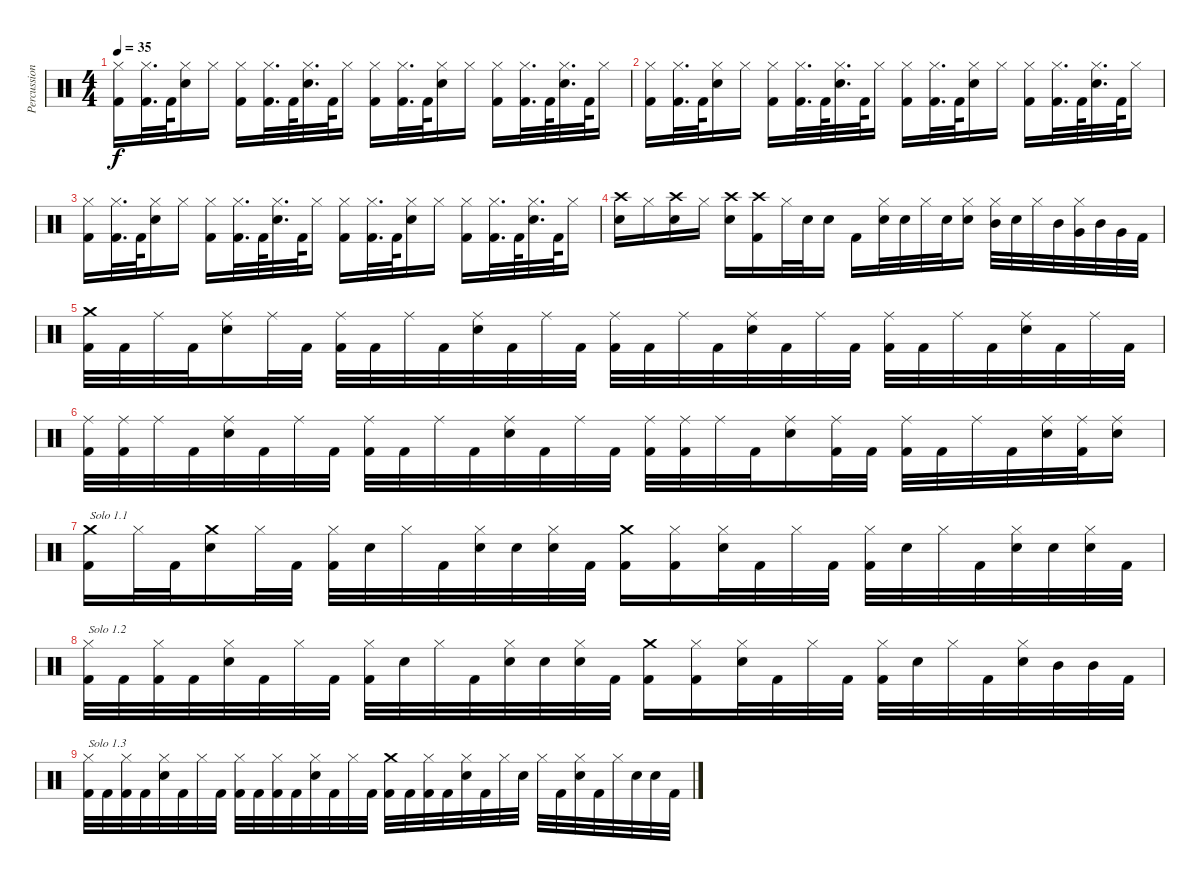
\track ("Percussion" "Percussion") {instrument percussion}
\staff {score}
\articulation defaults
\ts (4 4)
\tempo 35
\clef neutral
\ks c
("Hi-Hat (closed)" "Kick (hit) 2").16{dy f} ("Hi-Hat (closed)" "Kick (hit) 2").32{d} "Kick (hit) 2".64 ("Hi-Hat (closed)" "Snare (hit) 2").16 "Hi-Hat (closed)".16 ("Hi-Hat (closed)" "Kick (hit) 2").16 ("Hi-Hat (closed)" "Kick (hit) 2").32{d} "Kick (hit) 2".64 ("Hi-Hat (closed)" "Snare (hit) 2").32{d} "Kick (hit) 2".64 "Hi-Hat (closed)".16 ("Hi-Hat (closed)" "Kick (hit) 2").16 ("Hi-Hat (closed)" "Kick (hit) 2").32{d} "Kick (hit) 2".64 ("Hi-Hat (closed)" "Snare (hit) 2").16 "Hi-Hat (closed)".16 ("Hi-Hat (closed)" "Kick (hit) 2").16 ("Hi-Hat (closed)" "Kick (hit) 2").32{d} "Kick (hit) 2".64 ("Hi-Hat (closed)" "Snare (hit) 2").32{d} "Kick (hit) 2".64 "Hi-Hat (closed)".16 |
("Hi-Hat (closed)" "Kick (hit) 2").16 ("Hi-Hat (closed)" "Kick (hit) 2").32{d} "Kick (hit) 2".64 ("Hi-Hat (closed)" "Snare (hit) 2").16 "Hi-Hat (closed)".16 ("Hi-Hat (closed)" "Kick (hit) 2").16 ("Hi-Hat (closed)" "Kick (hit) 2").32{d} "Kick (hit) 2".64 ("Hi-Hat (closed)" "Snare (hit) 2").32{d} "Kick (hit) 2".64 "Hi-Hat (closed)".16 ("Hi-Hat (closed)" "Kick (hit) 2").16 ("Hi-Hat (closed)" "Kick (hit) 2").32{d} "Kick (hit) 2".64 ("Hi-Hat (closed)" "Snare (hit) 2").16 "Hi-Hat (closed)".16 ("Hi-Hat (closed)" "Kick (hit) 2").16 ("Hi-Hat (closed)" "Kick (hit) 2").32{d} "Kick (hit) 2".64 ("Hi-Hat (closed)" "Snare (hit) 2").32{d} "Kick (hit) 2".64 "Hi-Hat (closed)".16 |
("Hi-Hat (closed)" "Kick (hit) 2").16 ("Hi-Hat (closed)" "Kick (hit) 2").32{d} "Kick (hit) 2".64 ("Hi-Hat (closed)" "Snare (hit) 2").16 "Hi-Hat (closed)".16 ("Hi-Hat (closed)" "Kick (hit) 2").16 ("Hi-Hat (closed)" "Kick (hit) 2").32{d} "Kick (hit) 2".64 ("Hi-Hat (closed)" "Snare (hit) 2").32{d} "Kick (hit) 2".64 "Hi-Hat (closed)".16 ("Hi-Hat (closed)" "Kick (hit) 2").16 ("Hi-Hat (closed)" "Kick (hit) 2").32{d} "Kick (hit) 2".64 ("Hi-Hat (closed)" "Snare (hit) 2").16 "Hi-Hat (closed)".16 ("Hi-Hat (closed)" "Kick (hit) 2").16 ("Hi-Hat (closed)" "Kick (hit) 2").32{d} "Kick (hit) 2".64 ("Hi-Hat (closed)" "Snare (hit) 2").32{d} "Kick (hit) 2".64 "Hi-Hat (closed)".16 |
("Crash high (hit)" "Snare (hit) 2").16 "Hi-Hat (closed)".16 ("Crash high (hit)" "Snare (hit) 2").16 "Hi-Hat (closed)".16 ("Crash high (hit)" "Snare (hit) 2").16 ("Crash high (hit)" "Kick (hit) 2").16 "Hi-Hat (closed)".32 "Snare (hit) 2".32 "Snare (hit) 2".16 "Kick (hit) 2".16 ("Hi-Hat (closed)" "Snare (hit) 2").32 "Snare (hit) 2".32 "Hi-Hat (closed)".32 "Snare (hit) 2".32 ("Hi-Hat (closed)" "Snare (hit) 2").16 ("Hi-Hat (closed)" "Mid Tom (hit)").32 "Snare (hit) 2".32 "Hi-Hat (closed)".32 "Mid Tom (hit)".32 ("Hi-Hat (closed)" "Very Low Tom (hit)").32 "Mid Tom (hit)".32 "Very Low Tom (hit)".32 "Kick (hit) 2".32 |
("Crash medium (hit)" "Kick (hit) 2").32 "Kick (hit) 2".32 "Ride (middle)".32 "Kick (hit) 2".32 ("Ride (middle)" "Snare (hit) 2").16 "Ride (middle)".32 "Kick (hit) 2".32 ("Ride (middle)" "Kick (hit) 2").32 "Kick (hit) 2".32 "Ride (middle)".32 "Kick (hit) 2".32 ("Ride (middle)" "Snare (hit) 2").32 "Kick (hit) 2".32 "Ride (middle)".32 "Kick (hit) 2".32 ("Ride (middle)" "Kick (hit) 2").32 "Kick (hit) 2".32 "Ride (middle)".32 "Kick (hit) 2".32 ("Ride (middle)" "Snare (hit) 2").32 "Kick (hit) 2".32 "Ride (middle)".32 "Kick (hit) 2".32 ("Ride (middle)" "Kick (hit) 2").32 "Kick (hit) 2".32 "Ride (middle)".32 "Kick (hit) 2".32 ("Ride (middle)" "Snare (hit) 2").32 "Kick (hit) 2".32 "Ride (middle)".32 "Kick (hit) 2".32 |
("Ride (middle)" "Kick (hit) 2").32 ("Ride (middle)" "Kick (hit) 2").32 "Ride (middle)".32 "Kick (hit) 2".32 ("Ride (middle)" "Snare (hit) 2").32 "Kick (hit) 2".32 "Ride (middle)".32 "Kick (hit) 2".32 ("Ride (middle)" "Kick (hit) 2").32 "Kick (hit) 2".32 "Ride (middle)".32 "Kick (hit) 2".32 ("Ride (middle)" "Snare (hit) 2").32 "Kick (hit) 2".32 "Ride (middle)".32 "Kick (hit) 2".32 ("Ride (middle)" "Kick (hit) 2").32 ("Ride (middle)" "Kick (hit) 2").32 "Ride (middle)".32 "Kick (hit) 2".32 ("Ride (middle)" "Snare (hit) 2").16 ("Ride (middle)" "Kick (hit) 2").32 "Kick (hit) 2".32 ("Ride (middle)" "Kick (hit) 2").32 "Kick (hit) 2".32 "Ride (middle)".32 "Kick (hit) 2".32 ("Ride (middle)" "Snare (hit) 2").32 ("Ride (middle)" "Kick (hit) 2").32 ("Ride (middle)" "Snare (hit) 2").16 |
("Crash medium (hit)" "Kick (hit) 2").16{txt "Solo 1.1"} "Hi-Hat (closed)".32 "Kick (hit) 2".32 ("Crash medium (hit)" "Snare (hit) 2").16 "Hi-Hat (closed)".32 "Kick (hit) 2".32 ("Hi-Hat (closed)" "Kick (hit) 2").32 "Snare (hit) 2".32 "Hi-Hat (closed)".32 "Kick (hit) 2".32 ("Hi-Hat (closed)" "Snare (hit) 2").32 "Snare (hit) 2".32 ("Hi-Hat (closed)" "Snare (hit) 2").32 "Kick (hit) 2".32 ("Crash medium (hit)" "Kick (hit) 2").16 ("Hi-Hat (closed)" "Kick (hit) 2").16 ("Hi-Hat (closed)" "Snare (hit) 2").32 "Kick (hit) 2".32 "Hi-Hat (closed)".32 "Kick (hit) 2".32 ("Hi-Hat (closed)" "Kick (hit) 2").32 "Snare (hit) 2".32 "Hi-Hat (closed)".32 "Kick (hit) 2".32 ("Hi-Hat (closed)" "Snare (hit) 2").32 "Snare (hit) 2".32 ("Hi-Hat (closed)" "Snare (hit) 2").32 "Kick (hit) 2".32 |
("Hi-Hat (closed)" "Kick (hit) 2").32{txt "Solo 1.2"} "Kick (hit) 2".32 ("Hi-Hat (closed)" "Kick (hit) 2").32 "Kick (hit) 2".32 ("Hi-Hat (closed)" "Snare (hit) 2").32 "Kick (hit) 2".32 "Hi-Hat (closed)".32 "Kick (hit) 2".32 ("Hi-Hat (closed)" "Kick (hit) 2").32 "Snare (hit) 2".32 "Hi-Hat (closed)".32 "Kick (hit) 2".32 ("Hi-Hat (closed)" "Snare (hit) 2").32 "Snare (hit) 2".32 ("Hi-Hat (closed)" "Snare (hit) 2").32 "Kick (hit) 2".32 ("Crash medium (hit)" "Kick (hit) 2").16 ("Hi-Hat (closed)" "Kick (hit) 2").16 ("Hi-Hat (closed)" "Snare (hit) 2").32 "Kick (hit) 2".32 "Hi-Hat (closed)".32 "Kick (hit) 2".32 ("Hi-Hat (closed)" "Kick (hit) 2").32 "Snare (hit) 2".32 "Hi-Hat (closed)".32 "Kick (hit) 2".32 ("Hi-Hat (closed)" "Snare (hit) 2").32 "Mid Tom (hit)".32 "Mid Tom (hit)".32 "Kick (hit) 2".32 |
("Hi-Hat (closed)" "Kick (hit) 2").32{txt "Solo 1.3"} "Kick (hit) 2".32 ("Hi-Hat (closed)" "Kick (hit) 2").32 "Kick (hit) 2".32 ("Hi-Hat (closed)" "Snare (hit) 2").32 "Kick (hit) 2".32 "Hi-Hat (closed)".32 "Kick (hit) 2".32 ("Hi-Hat (closed)" "Kick (hit) 2").32 "Kick (hit) 2".32 ("Hi-Hat (closed)" "Kick (hit) 2").32 "Kick (hit) 2".32 ("Hi-Hat (closed)" "Snare (hit) 2").32 "Kick (hit) 2".32 "Hi-Hat (closed)".32 "Kick (hit) 2".32 ("Crash medium (hit)" "Kick (hit) 2").32 "Kick (hit) 2".32 ("Hi-Hat (closed)" "Kick (hit) 2").32 "Kick (hit) 2".32 ("Hi-Hat (closed)" "Snare (hit) 2").32 "Kick (hit) 2".32 "Hi-Hat (closed)".32 "Snare (hit) 2".32 "Hi-Hat (closed)".32 "Kick (hit) 2".32 ("Hi-Hat (closed)" "Snare (hit) 2").32 "Kick (hit) 2".32 "Hi-Hat (closed)".32 "Snare (hit) 2".32 "Snare (hit) 2".32 "Kick (hit) 2".32
